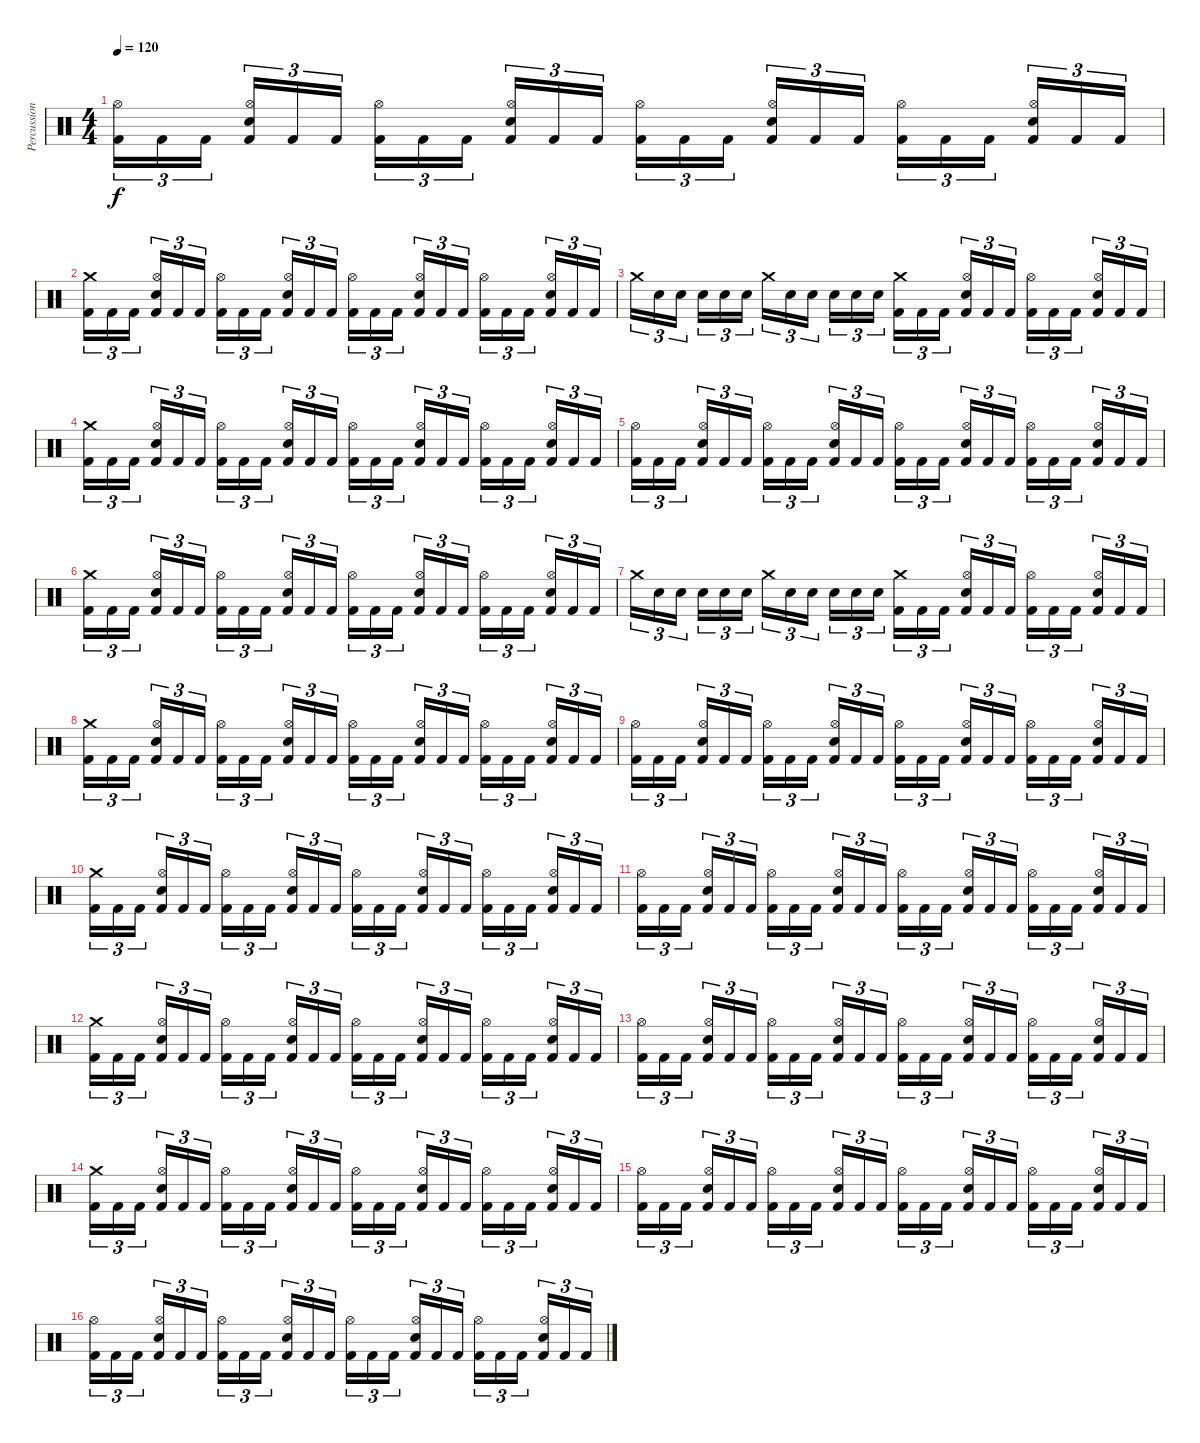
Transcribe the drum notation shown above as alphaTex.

\track ("Percussion" "Percussion") {instrument percussion}
\staff {score}
\articulation defaults
\ts (4 4)
\tempo 120
\clef neutral
\ks c
("Kick (hit) 2" "Hi-Hat (open)").16{tu (3 2) dy f} "Kick (hit) 2".16{tu (3 2)} "Kick (hit) 2".16{tu (3 2)} ("Kick (hit) 2" "Snare (hit) 2" "Hi-Hat (open)").16{tu (3 2)} "Kick (hit) 2".16{tu (3 2)} "Kick (hit) 2".16{tu (3 2)} ("Kick (hit) 2" "Hi-Hat (open)").16{tu (3 2)} "Kick (hit) 2".16{tu (3 2)} "Kick (hit) 2".16{tu (3 2)} ("Kick (hit) 2" "Snare (hit) 2" "Hi-Hat (open)").16{tu (3 2)} "Kick (hit) 2".16{tu (3 2)} "Kick (hit) 2".16{tu (3 2)} ("Kick (hit) 2" "Hi-Hat (open)").16{tu (3 2)} "Kick (hit) 2".16{tu (3 2)} "Kick (hit) 2".16{tu (3 2)} ("Kick (hit) 2" "Snare (hit) 2" "Hi-Hat (open)").16{tu (3 2)} "Kick (hit) 2".16{tu (3 2)} "Kick (hit) 2".16{tu (3 2)} ("Kick (hit) 2" "Hi-Hat (open)").16{tu (3 2)} "Kick (hit) 2".16{tu (3 2)} "Kick (hit) 2".16{tu (3 2)} ("Kick (hit) 2" "Snare (hit) 2" "Hi-Hat (open)").16{tu (3 2)} "Kick (hit) 2".16{tu (3 2)} "Kick (hit) 2".16{tu (3 2)} |
("Kick (hit) 2" "Crash medium (hit)").16{tu (3 2)} "Kick (hit) 2".16{tu (3 2)} "Kick (hit) 2".16{tu (3 2)} ("Kick (hit) 2" "Snare (hit) 2" "Hi-Hat (open)").16{tu (3 2)} "Kick (hit) 2".16{tu (3 2)} "Kick (hit) 2".16{tu (3 2)} ("Kick (hit) 2" "Hi-Hat (open)").16{tu (3 2)} "Kick (hit) 2".16{tu (3 2)} "Kick (hit) 2".16{tu (3 2)} ("Kick (hit) 2" "Snare (hit) 2" "Hi-Hat (open)").16{tu (3 2)} "Kick (hit) 2".16{tu (3 2)} "Kick (hit) 2".16{tu (3 2)} ("Kick (hit) 2" "Hi-Hat (open)").16{tu (3 2)} "Kick (hit) 2".16{tu (3 2)} "Kick (hit) 2".16{tu (3 2)} ("Kick (hit) 2" "Snare (hit) 2" "Hi-Hat (open)").16{tu (3 2)} "Kick (hit) 2".16{tu (3 2)} "Kick (hit) 2".16{tu (3 2)} ("Kick (hit) 2" "Hi-Hat (open)").16{tu (3 2)} "Kick (hit) 2".16{tu (3 2)} "Kick (hit) 2".16{tu (3 2)} ("Kick (hit) 2" "Snare (hit) 2" "Hi-Hat (open)").16{tu (3 2)} "Kick (hit) 2".16{tu (3 2)} "Kick (hit) 2".16{tu (3 2)} |
"Crash medium (hit)".16{tu (3 2)} "Snare (hit) 2".16{tu (3 2)} "Snare (hit) 2".16{tu (3 2)} "Snare (hit) 2".16{tu (3 2)} "Snare (hit) 2".16{tu (3 2)} "Snare (hit) 2".16{tu (3 2)} "Crash medium (hit)".16{tu (3 2)} "Snare (hit) 2".16{tu (3 2)} "Snare (hit) 2".16{tu (3 2)} "Snare (hit) 2".16{tu (3 2)} "Snare (hit) 2".16{tu (3 2)} "Snare (hit) 2".16{tu (3 2)} ("Kick (hit) 2" "Crash medium (hit)").16{tu (3 2)} "Kick (hit) 2".16{tu (3 2)} "Kick (hit) 2".16{tu (3 2)} ("Kick (hit) 2" "Snare (hit) 2" "Hi-Hat (open)").16{tu (3 2)} "Kick (hit) 2".16{tu (3 2)} "Kick (hit) 2".16{tu (3 2)} ("Kick (hit) 2" "Hi-Hat (open)").16{tu (3 2)} "Kick (hit) 2".16{tu (3 2)} "Kick (hit) 2".16{tu (3 2)} ("Kick (hit) 2" "Snare (hit) 2" "Hi-Hat (open)").16{tu (3 2)} "Kick (hit) 2".16{tu (3 2)} "Kick (hit) 2".16{tu (3 2)} |
("Kick (hit) 2" "Crash medium (hit)").16{tu (3 2)} "Kick (hit) 2".16{tu (3 2)} "Kick (hit) 2".16{tu (3 2)} ("Kick (hit) 2" "Snare (hit) 2" "Hi-Hat (open)").16{tu (3 2)} "Kick (hit) 2".16{tu (3 2)} "Kick (hit) 2".16{tu (3 2)} ("Kick (hit) 2" "Hi-Hat (open)").16{tu (3 2)} "Kick (hit) 2".16{tu (3 2)} "Kick (hit) 2".16{tu (3 2)} ("Kick (hit) 2" "Snare (hit) 2" "Hi-Hat (open)").16{tu (3 2)} "Kick (hit) 2".16{tu (3 2)} "Kick (hit) 2".16{tu (3 2)} ("Kick (hit) 2" "Hi-Hat (open)").16{tu (3 2)} "Kick (hit) 2".16{tu (3 2)} "Kick (hit) 2".16{tu (3 2)} ("Kick (hit) 2" "Snare (hit) 2" "Hi-Hat (open)").16{tu (3 2)} "Kick (hit) 2".16{tu (3 2)} "Kick (hit) 2".16{tu (3 2)} ("Kick (hit) 2" "Hi-Hat (open)").16{tu (3 2)} "Kick (hit) 2".16{tu (3 2)} "Kick (hit) 2".16{tu (3 2)} ("Kick (hit) 2" "Snare (hit) 2" "Hi-Hat (open)").16{tu (3 2)} "Kick (hit) 2".16{tu (3 2)} "Kick (hit) 2".16{tu (3 2)} |
("Kick (hit) 2" "Hi-Hat (open)").16{tu (3 2)} "Kick (hit) 2".16{tu (3 2)} "Kick (hit) 2".16{tu (3 2)} ("Kick (hit) 2" "Snare (hit) 2" "Hi-Hat (open)").16{tu (3 2)} "Kick (hit) 2".16{tu (3 2)} "Kick (hit) 2".16{tu (3 2)} ("Kick (hit) 2" "Hi-Hat (open)").16{tu (3 2)} "Kick (hit) 2".16{tu (3 2)} "Kick (hit) 2".16{tu (3 2)} ("Kick (hit) 2" "Snare (hit) 2" "Hi-Hat (open)").16{tu (3 2)} "Kick (hit) 2".16{tu (3 2)} "Kick (hit) 2".16{tu (3 2)} ("Kick (hit) 2" "Hi-Hat (open)").16{tu (3 2)} "Kick (hit) 2".16{tu (3 2)} "Kick (hit) 2".16{tu (3 2)} ("Kick (hit) 2" "Snare (hit) 2" "Hi-Hat (open)").16{tu (3 2)} "Kick (hit) 2".16{tu (3 2)} "Kick (hit) 2".16{tu (3 2)} ("Kick (hit) 2" "Hi-Hat (open)").16{tu (3 2)} "Kick (hit) 2".16{tu (3 2)} "Kick (hit) 2".16{tu (3 2)} ("Kick (hit) 2" "Snare (hit) 2" "Hi-Hat (open)").16{tu (3 2)} "Kick (hit) 2".16{tu (3 2)} "Kick (hit) 2".16{tu (3 2)} |
("Kick (hit) 2" "Crash medium (hit)").16{tu (3 2)} "Kick (hit) 2".16{tu (3 2)} "Kick (hit) 2".16{tu (3 2)} ("Kick (hit) 2" "Snare (hit) 2" "Hi-Hat (open)").16{tu (3 2)} "Kick (hit) 2".16{tu (3 2)} "Kick (hit) 2".16{tu (3 2)} ("Kick (hit) 2" "Hi-Hat (open)").16{tu (3 2)} "Kick (hit) 2".16{tu (3 2)} "Kick (hit) 2".16{tu (3 2)} ("Kick (hit) 2" "Snare (hit) 2" "Hi-Hat (open)").16{tu (3 2)} "Kick (hit) 2".16{tu (3 2)} "Kick (hit) 2".16{tu (3 2)} ("Kick (hit) 2" "Hi-Hat (open)").16{tu (3 2)} "Kick (hit) 2".16{tu (3 2)} "Kick (hit) 2".16{tu (3 2)} ("Kick (hit) 2" "Snare (hit) 2" "Hi-Hat (open)").16{tu (3 2)} "Kick (hit) 2".16{tu (3 2)} "Kick (hit) 2".16{tu (3 2)} ("Kick (hit) 2" "Hi-Hat (open)").16{tu (3 2)} "Kick (hit) 2".16{tu (3 2)} "Kick (hit) 2".16{tu (3 2)} ("Kick (hit) 2" "Snare (hit) 2" "Hi-Hat (open)").16{tu (3 2)} "Kick (hit) 2".16{tu (3 2)} "Kick (hit) 2".16{tu (3 2)} |
"Crash medium (hit)".16{tu (3 2)} "Snare (hit) 2".16{tu (3 2)} "Snare (hit) 2".16{tu (3 2)} "Snare (hit) 2".16{tu (3 2)} "Snare (hit) 2".16{tu (3 2)} "Snare (hit) 2".16{tu (3 2)} "Crash medium (hit)".16{tu (3 2)} "Snare (hit) 2".16{tu (3 2)} "Snare (hit) 2".16{tu (3 2)} "Snare (hit) 2".16{tu (3 2)} "Snare (hit) 2".16{tu (3 2)} "Snare (hit) 2".16{tu (3 2)} ("Kick (hit) 2" "Crash medium (hit)").16{tu (3 2)} "Kick (hit) 2".16{tu (3 2)} "Kick (hit) 2".16{tu (3 2)} ("Kick (hit) 2" "Snare (hit) 2" "Hi-Hat (open)").16{tu (3 2)} "Kick (hit) 2".16{tu (3 2)} "Kick (hit) 2".16{tu (3 2)} ("Kick (hit) 2" "Hi-Hat (open)").16{tu (3 2)} "Kick (hit) 2".16{tu (3 2)} "Kick (hit) 2".16{tu (3 2)} ("Kick (hit) 2" "Snare (hit) 2" "Hi-Hat (open)").16{tu (3 2)} "Kick (hit) 2".16{tu (3 2)} "Kick (hit) 2".16{tu (3 2)} |
("Kick (hit) 2" "Crash medium (hit)").16{tu (3 2)} "Kick (hit) 2".16{tu (3 2)} "Kick (hit) 2".16{tu (3 2)} ("Kick (hit) 2" "Snare (hit) 2" "Hi-Hat (open)").16{tu (3 2)} "Kick (hit) 2".16{tu (3 2)} "Kick (hit) 2".16{tu (3 2)} ("Kick (hit) 2" "Hi-Hat (open)").16{tu (3 2)} "Kick (hit) 2".16{tu (3 2)} "Kick (hit) 2".16{tu (3 2)} ("Kick (hit) 2" "Snare (hit) 2" "Hi-Hat (open)").16{tu (3 2)} "Kick (hit) 2".16{tu (3 2)} "Kick (hit) 2".16{tu (3 2)} ("Kick (hit) 2" "Hi-Hat (open)").16{tu (3 2)} "Kick (hit) 2".16{tu (3 2)} "Kick (hit) 2".16{tu (3 2)} ("Kick (hit) 2" "Snare (hit) 2" "Hi-Hat (open)").16{tu (3 2)} "Kick (hit) 2".16{tu (3 2)} "Kick (hit) 2".16{tu (3 2)} ("Kick (hit) 2" "Hi-Hat (open)").16{tu (3 2)} "Kick (hit) 2".16{tu (3 2)} "Kick (hit) 2".16{tu (3 2)} ("Kick (hit) 2" "Snare (hit) 2" "Hi-Hat (open)").16{tu (3 2)} "Kick (hit) 2".16{tu (3 2)} "Kick (hit) 2".16{tu (3 2)} |
("Kick (hit) 2" "Hi-Hat (open)").16{tu (3 2)} "Kick (hit) 2".16{tu (3 2)} "Kick (hit) 2".16{tu (3 2)} ("Kick (hit) 2" "Snare (hit) 2" "Hi-Hat (open)").16{tu (3 2)} "Kick (hit) 2".16{tu (3 2)} "Kick (hit) 2".16{tu (3 2)} ("Kick (hit) 2" "Hi-Hat (open)").16{tu (3 2)} "Kick (hit) 2".16{tu (3 2)} "Kick (hit) 2".16{tu (3 2)} ("Kick (hit) 2" "Snare (hit) 2" "Hi-Hat (open)").16{tu (3 2)} "Kick (hit) 2".16{tu (3 2)} "Kick (hit) 2".16{tu (3 2)} ("Kick (hit) 2" "Hi-Hat (open)").16{tu (3 2)} "Kick (hit) 2".16{tu (3 2)} "Kick (hit) 2".16{tu (3 2)} ("Kick (hit) 2" "Snare (hit) 2" "Hi-Hat (open)").16{tu (3 2)} "Kick (hit) 2".16{tu (3 2)} "Kick (hit) 2".16{tu (3 2)} ("Kick (hit) 2" "Hi-Hat (open)").16{tu (3 2)} "Kick (hit) 2".16{tu (3 2)} "Kick (hit) 2".16{tu (3 2)} ("Kick (hit) 2" "Snare (hit) 2" "Hi-Hat (open)").16{tu (3 2)} "Kick (hit) 2".16{tu (3 2)} "Kick (hit) 2".16{tu (3 2)} |
("Kick (hit) 2" "Crash medium (hit)").16{tu (3 2)} "Kick (hit) 2".16{tu (3 2)} "Kick (hit) 2".16{tu (3 2)} ("Kick (hit) 2" "Snare (hit) 2" "Hi-Hat (open)").16{tu (3 2)} "Kick (hit) 2".16{tu (3 2)} "Kick (hit) 2".16{tu (3 2)} ("Kick (hit) 2" "Hi-Hat (open)").16{tu (3 2)} "Kick (hit) 2".16{tu (3 2)} "Kick (hit) 2".16{tu (3 2)} ("Kick (hit) 2" "Snare (hit) 2" "Hi-Hat (open)").16{tu (3 2)} "Kick (hit) 2".16{tu (3 2)} "Kick (hit) 2".16{tu (3 2)} ("Kick (hit) 2" "Hi-Hat (open)").16{tu (3 2)} "Kick (hit) 2".16{tu (3 2)} "Kick (hit) 2".16{tu (3 2)} ("Kick (hit) 2" "Snare (hit) 2" "Hi-Hat (open)").16{tu (3 2)} "Kick (hit) 2".16{tu (3 2)} "Kick (hit) 2".16{tu (3 2)} ("Kick (hit) 2" "Hi-Hat (open)").16{tu (3 2)} "Kick (hit) 2".16{tu (3 2)} "Kick (hit) 2".16{tu (3 2)} ("Kick (hit) 2" "Snare (hit) 2" "Hi-Hat (open)").16{tu (3 2)} "Kick (hit) 2".16{tu (3 2)} "Kick (hit) 2".16{tu (3 2)} |
("Kick (hit) 2" "Hi-Hat (open)").16{tu (3 2)} "Kick (hit) 2".16{tu (3 2)} "Kick (hit) 2".16{tu (3 2)} ("Kick (hit) 2" "Snare (hit) 2" "Hi-Hat (open)").16{tu (3 2)} "Kick (hit) 2".16{tu (3 2)} "Kick (hit) 2".16{tu (3 2)} ("Kick (hit) 2" "Hi-Hat (open)").16{tu (3 2)} "Kick (hit) 2".16{tu (3 2)} "Kick (hit) 2".16{tu (3 2)} ("Kick (hit) 2" "Snare (hit) 2" "Hi-Hat (open)").16{tu (3 2)} "Kick (hit) 2".16{tu (3 2)} "Kick (hit) 2".16{tu (3 2)} ("Kick (hit) 2" "Hi-Hat (open)").16{tu (3 2)} "Kick (hit) 2".16{tu (3 2)} "Kick (hit) 2".16{tu (3 2)} ("Kick (hit) 2" "Snare (hit) 2" "Hi-Hat (open)").16{tu (3 2)} "Kick (hit) 2".16{tu (3 2)} "Kick (hit) 2".16{tu (3 2)} ("Kick (hit) 2" "Hi-Hat (open)").16{tu (3 2)} "Kick (hit) 2".16{tu (3 2)} "Kick (hit) 2".16{tu (3 2)} ("Kick (hit) 2" "Snare (hit) 2" "Hi-Hat (open)").16{tu (3 2)} "Kick (hit) 2".16{tu (3 2)} "Kick (hit) 2".16{tu (3 2)} |
("Kick (hit) 2" "Crash medium (hit)").16{tu (3 2)} "Kick (hit) 2".16{tu (3 2)} "Kick (hit) 2".16{tu (3 2)} ("Kick (hit) 2" "Snare (hit) 2" "Hi-Hat (open)").16{tu (3 2)} "Kick (hit) 2".16{tu (3 2)} "Kick (hit) 2".16{tu (3 2)} ("Kick (hit) 2" "Hi-Hat (open)").16{tu (3 2)} "Kick (hit) 2".16{tu (3 2)} "Kick (hit) 2".16{tu (3 2)} ("Kick (hit) 2" "Snare (hit) 2" "Hi-Hat (open)").16{tu (3 2)} "Kick (hit) 2".16{tu (3 2)} "Kick (hit) 2".16{tu (3 2)} ("Kick (hit) 2" "Hi-Hat (open)").16{tu (3 2)} "Kick (hit) 2".16{tu (3 2)} "Kick (hit) 2".16{tu (3 2)} ("Kick (hit) 2" "Snare (hit) 2" "Hi-Hat (open)").16{tu (3 2)} "Kick (hit) 2".16{tu (3 2)} "Kick (hit) 2".16{tu (3 2)} ("Kick (hit) 2" "Hi-Hat (open)").16{tu (3 2)} "Kick (hit) 2".16{tu (3 2)} "Kick (hit) 2".16{tu (3 2)} ("Kick (hit) 2" "Snare (hit) 2" "Hi-Hat (open)").16{tu (3 2)} "Kick (hit) 2".16{tu (3 2)} "Kick (hit) 2".16{tu (3 2)} |
("Kick (hit) 2" "Hi-Hat (open)").16{tu (3 2)} "Kick (hit) 2".16{tu (3 2)} "Kick (hit) 2".16{tu (3 2)} ("Kick (hit) 2" "Snare (hit) 2" "Hi-Hat (open)").16{tu (3 2)} "Kick (hit) 2".16{tu (3 2)} "Kick (hit) 2".16{tu (3 2)} ("Kick (hit) 2" "Hi-Hat (open)").16{tu (3 2)} "Kick (hit) 2".16{tu (3 2)} "Kick (hit) 2".16{tu (3 2)} ("Kick (hit) 2" "Snare (hit) 2" "Hi-Hat (open)").16{tu (3 2)} "Kick (hit) 2".16{tu (3 2)} "Kick (hit) 2".16{tu (3 2)} ("Kick (hit) 2" "Hi-Hat (open)").16{tu (3 2)} "Kick (hit) 2".16{tu (3 2)} "Kick (hit) 2".16{tu (3 2)} ("Kick (hit) 2" "Snare (hit) 2" "Hi-Hat (open)").16{tu (3 2)} "Kick (hit) 2".16{tu (3 2)} "Kick (hit) 2".16{tu (3 2)} ("Kick (hit) 2" "Hi-Hat (open)").16{tu (3 2)} "Kick (hit) 2".16{tu (3 2)} "Kick (hit) 2".16{tu (3 2)} ("Kick (hit) 2" "Snare (hit) 2" "Hi-Hat (open)").16{tu (3 2)} "Kick (hit) 2".16{tu (3 2)} "Kick (hit) 2".16{tu (3 2)} |
("Kick (hit) 2" "Crash medium (hit)").16{tu (3 2)} "Kick (hit) 2".16{tu (3 2)} "Kick (hit) 2".16{tu (3 2)} ("Kick (hit) 2" "Snare (hit) 2" "Hi-Hat (open)").16{tu (3 2)} "Kick (hit) 2".16{tu (3 2)} "Kick (hit) 2".16{tu (3 2)} ("Kick (hit) 2" "Hi-Hat (open)").16{tu (3 2)} "Kick (hit) 2".16{tu (3 2)} "Kick (hit) 2".16{tu (3 2)} ("Kick (hit) 2" "Snare (hit) 2" "Hi-Hat (open)").16{tu (3 2)} "Kick (hit) 2".16{tu (3 2)} "Kick (hit) 2".16{tu (3 2)} ("Kick (hit) 2" "Hi-Hat (open)").16{tu (3 2)} "Kick (hit) 2".16{tu (3 2)} "Kick (hit) 2".16{tu (3 2)} ("Kick (hit) 2" "Snare (hit) 2" "Hi-Hat (open)").16{tu (3 2)} "Kick (hit) 2".16{tu (3 2)} "Kick (hit) 2".16{tu (3 2)} ("Kick (hit) 2" "Hi-Hat (open)").16{tu (3 2)} "Kick (hit) 2".16{tu (3 2)} "Kick (hit) 2".16{tu (3 2)} ("Kick (hit) 2" "Snare (hit) 2" "Hi-Hat (open)").16{tu (3 2)} "Kick (hit) 2".16{tu (3 2)} "Kick (hit) 2".16{tu (3 2)} |
("Kick (hit) 2" "Hi-Hat (open)").16{tu (3 2)} "Kick (hit) 2".16{tu (3 2)} "Kick (hit) 2".16{tu (3 2)} ("Kick (hit) 2" "Snare (hit) 2" "Hi-Hat (open)").16{tu (3 2)} "Kick (hit) 2".16{tu (3 2)} "Kick (hit) 2".16{tu (3 2)} ("Kick (hit) 2" "Hi-Hat (open)").16{tu (3 2)} "Kick (hit) 2".16{tu (3 2)} "Kick (hit) 2".16{tu (3 2)} ("Kick (hit) 2" "Snare (hit) 2" "Hi-Hat (open)").16{tu (3 2)} "Kick (hit) 2".16{tu (3 2)} "Kick (hit) 2".16{tu (3 2)} ("Kick (hit) 2" "Hi-Hat (open)").16{tu (3 2)} "Kick (hit) 2".16{tu (3 2)} "Kick (hit) 2".16{tu (3 2)} ("Kick (hit) 2" "Snare (hit) 2" "Hi-Hat (open)").16{tu (3 2)} "Kick (hit) 2".16{tu (3 2)} "Kick (hit) 2".16{tu (3 2)} ("Kick (hit) 2" "Hi-Hat (open)").16{tu (3 2)} "Kick (hit) 2".16{tu (3 2)} "Kick (hit) 2".16{tu (3 2)} ("Kick (hit) 2" "Snare (hit) 2" "Hi-Hat (open)").16{tu (3 2)} "Kick (hit) 2".16{tu (3 2)} "Kick (hit) 2".16{tu (3 2)} |
("Kick (hit) 2" "Hi-Hat (open)").16{tu (3 2)} "Kick (hit) 2".16{tu (3 2)} "Kick (hit) 2".16{tu (3 2)} ("Kick (hit) 2" "Snare (hit) 2" "Hi-Hat (open)").16{tu (3 2)} "Kick (hit) 2".16{tu (3 2)} "Kick (hit) 2".16{tu (3 2)} ("Kick (hit) 2" "Hi-Hat (open)").16{tu (3 2)} "Kick (hit) 2".16{tu (3 2)} "Kick (hit) 2".16{tu (3 2)} ("Kick (hit) 2" "Snare (hit) 2" "Hi-Hat (open)").16{tu (3 2)} "Kick (hit) 2".16{tu (3 2)} "Kick (hit) 2".16{tu (3 2)} ("Kick (hit) 2" "Hi-Hat (open)").16{tu (3 2)} "Kick (hit) 2".16{tu (3 2)} "Kick (hit) 2".16{tu (3 2)} ("Kick (hit) 2" "Snare (hit) 2" "Hi-Hat (open)").16{tu (3 2)} "Kick (hit) 2".16{tu (3 2)} "Kick (hit) 2".16{tu (3 2)} ("Kick (hit) 2" "Hi-Hat (open)").16{tu (3 2)} "Kick (hit) 2".16{tu (3 2)} "Kick (hit) 2".16{tu (3 2)} ("Kick (hit) 2" "Snare (hit) 2" "Hi-Hat (open)").16{tu (3 2)} "Kick (hit) 2".16{tu (3 2)} "Kick (hit) 2".16{tu (3 2)}
